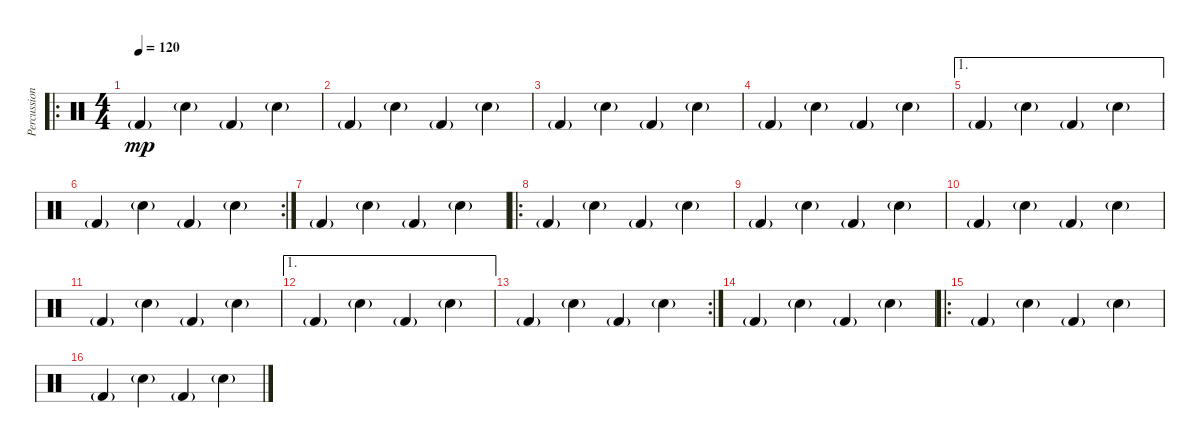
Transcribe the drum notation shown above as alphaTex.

\track ("Percussion" "Percussion") {instrument percussion}
\staff {score}
\articulation defaults
\ro
\ts (4 4)
\tempo 120
\clef neutral
\ks c "Kick (hit) 2"{g}.4{dy mp} "Electric Snare (hit)"{g}.4 "Kick (hit) 2"{g}.4 "Electric Snare (hit)"{g}.4
|
"Kick (hit) 2"{g}.4 "Electric Snare (hit)"{g}.4 "Kick (hit) 2"{g}.4 "Electric Snare (hit)"{g}.4 |
"Kick (hit) 2"{g}.4 "Electric Snare (hit)"{g}.4 "Kick (hit) 2"{g}.4 "Electric Snare (hit)"{g}.4 |
"Kick (hit) 2"{g}.4 "Electric Snare (hit)"{g}.4 "Kick (hit) 2"{g}.4 "Electric Snare (hit)"{g}.4 |
\ae 1 "Kick (hit) 2"{g}.4 "Electric Snare (hit)"{g}.4 "Kick (hit) 2"{g}.4 "Electric Snare (hit)"{g}.4
|
\rc 2 "Kick (hit) 2"{g}.4 "Electric Snare (hit)"{g}.4 "Kick (hit) 2"{g}.4 "Electric Snare (hit)"{g}.4
|
"Kick (hit) 2"{g}.4 "Electric Snare (hit)"{g}.4 "Kick (hit) 2"{g}.4 "Electric Snare (hit)"{g}.4 |
\ro "Kick (hit) 2"{g}.4 "Electric Snare (hit)"{g}.4 "Kick (hit) 2"{g}.4 "Electric Snare (hit)"{g}.4
|
"Kick (hit) 2"{g}.4 "Electric Snare (hit)"{g}.4 "Kick (hit) 2"{g}.4 "Electric Snare (hit)"{g}.4 |
"Kick (hit) 2"{g}.4 "Electric Snare (hit)"{g}.4 "Kick (hit) 2"{g}.4 "Electric Snare (hit)"{g}.4 |
"Kick (hit) 2"{g}.4 "Electric Snare (hit)"{g}.4 "Kick (hit) 2"{g}.4 "Electric Snare (hit)"{g}.4 |
\ae 1 "Kick (hit) 2"{g}.4 "Electric Snare (hit)"{g}.4 "Kick (hit) 2"{g}.4 "Electric Snare (hit)"{g}.4
|
\rc 2 "Kick (hit) 2"{g}.4 "Electric Snare (hit)"{g}.4 "Kick (hit) 2"{g}.4 "Electric Snare (hit)"{g}.4
|
"Kick (hit) 2"{g}.4 "Electric Snare (hit)"{g}.4 "Kick (hit) 2"{g}.4 "Electric Snare (hit)"{g}.4 |
\ro "Kick (hit) 2"{g}.4 "Electric Snare (hit)"{g}.4 "Kick (hit) 2"{g}.4 "Electric Snare (hit)"{g}.4
|
"Kick (hit) 2"{g}.4 "Electric Snare (hit)"{g}.4 "Kick (hit) 2"{g}.4 "Electric Snare (hit)"{g}.4
